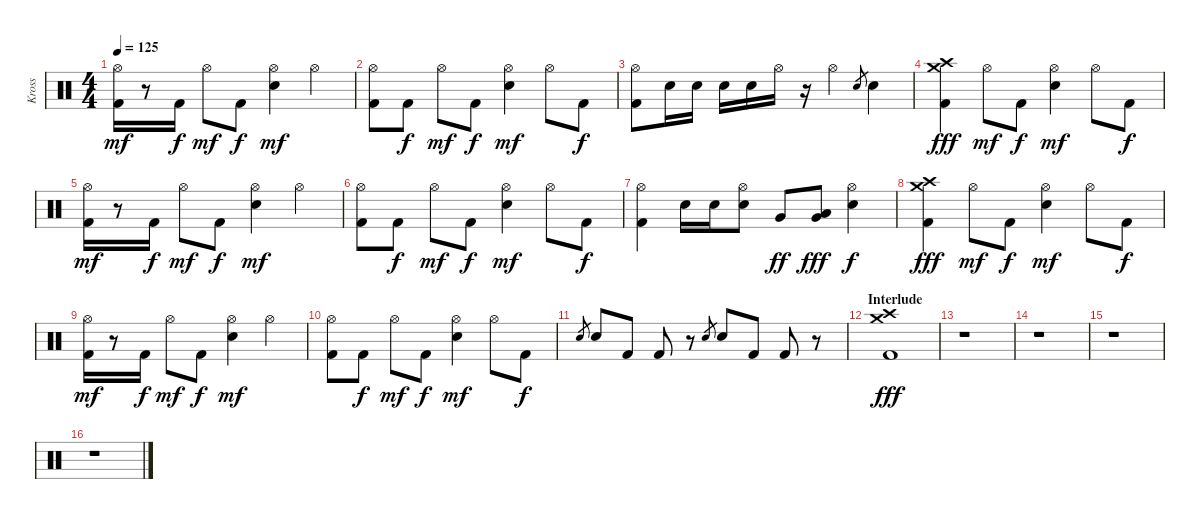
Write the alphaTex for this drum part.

\track ("Kross" "Kross") {instrument percussion}
\staff {score}
\articulation defaults
\ts (4 4)
\tempo 125
\clef neutral
\ks c
("Hi-Hat (open)" "Kick (hit) 2").16{dy mf} r.8 "Kick (hit) 2".16{dy f} "Hi-Hat (open)".8{dy mf} "Kick (hit) 2".8{dy f} ("Hi-Hat (open)" "Electric Snare (hit)").4{dy mf} "Hi-Hat (open)".4 |
("Hi-Hat (open)" "Kick (hit) 2").8 "Kick (hit) 2".8{dy f} "Hi-Hat (open)".8{dy mf} "Kick (hit) 2".8{dy f} ("Hi-Hat (open)" "Electric Snare (hit)").4{dy mf} "Hi-Hat (open)".8 "Kick (hit) 2".8{dy f} |
("Hi-Hat (open)" "Kick (hit) 2").8 "Electric Snare (hit)".16 "Electric Snare (hit)".16 "Electric Snare (hit)".16 "Electric Snare (hit)".16 "Hi-Hat (open)".16 r.16 "Hi-Hat (open)".4 "Electric Snare (hit)".8{gr} "Electric Snare (hit)".4 |
("Crash high (hit)" "Crash medium (hit)" "Kick (hit) 2").4{dy fff} "Hi-Hat (open)".8{dy mf} "Kick (hit) 2".8{dy f} ("Hi-Hat (open)" "Electric Snare (hit)").4{dy mf} "Hi-Hat (open)".8 "Kick (hit) 2".8{dy f} |
("Hi-Hat (open)" "Kick (hit) 2").16{dy mf} r.8 "Kick (hit) 2".16{dy f} "Hi-Hat (open)".8{dy mf} "Kick (hit) 2".8{dy f} ("Hi-Hat (open)" "Electric Snare (hit)").4{dy mf} "Hi-Hat (open)".4 |
("Hi-Hat (open)" "Kick (hit) 2").8 "Kick (hit) 2".8{dy f} "Hi-Hat (open)".8{dy mf} "Kick (hit) 2".8{dy f} ("Hi-Hat (open)" "Electric Snare (hit)").4{dy mf} "Hi-Hat (open)".8 "Kick (hit) 2".8{dy f} |
("Hi-Hat (open)" "Kick (hit) 2").4 "Electric Snare (hit)".16 "Electric Snare (hit)".16 ("Hi-Hat (open)" "Electric Snare (hit)").8 "Very Low Tom (hit)".8{dy ff} ("Low Tom (hit)" "Very Low Tom (hit)").8{dy fff} ("Hi-Hat (open)" "Electric Snare (hit)").4{dy f} |
("Crash high (hit)" "Crash medium (hit)" "Kick (hit) 2").4{dy fff} "Hi-Hat (open)".8{dy mf} "Kick (hit) 2".8{dy f} ("Hi-Hat (open)" "Electric Snare (hit)").4{dy mf} "Hi-Hat (open)".8 "Kick (hit) 2".8{dy f} |
("Hi-Hat (open)" "Kick (hit) 2").16{dy mf} r.8 "Kick (hit) 2".16{dy f} "Hi-Hat (open)".8{dy mf} "Kick (hit) 2".8{dy f} ("Hi-Hat (open)" "Electric Snare (hit)").4{dy mf} "Hi-Hat (open)".4 |
("Hi-Hat (open)" "Kick (hit) 2").8 "Kick (hit) 2".8{dy f} "Hi-Hat (open)".8{dy mf} "Kick (hit) 2".8{dy f} ("Hi-Hat (open)" "Electric Snare (hit)").4{dy mf} "Hi-Hat (open)".8 "Kick (hit) 2".8{dy f} |
"Electric Snare (hit)".8{gr} "Electric Snare (hit)".8 "Kick (hit) 2".8 "Kick (hit) 2".8 r.8 "Electric Snare (hit)".8{gr} "Electric Snare (hit)".8 "Kick (hit) 2".8 "Kick (hit) 2".8 r.8 |
\section ("" "Interlude")
("Crash high (hit)" "Crash medium (hit)" "Kick (hit) 2").1{dy fff} |
r.1 |
r.1 |
r.1 |
r.1
